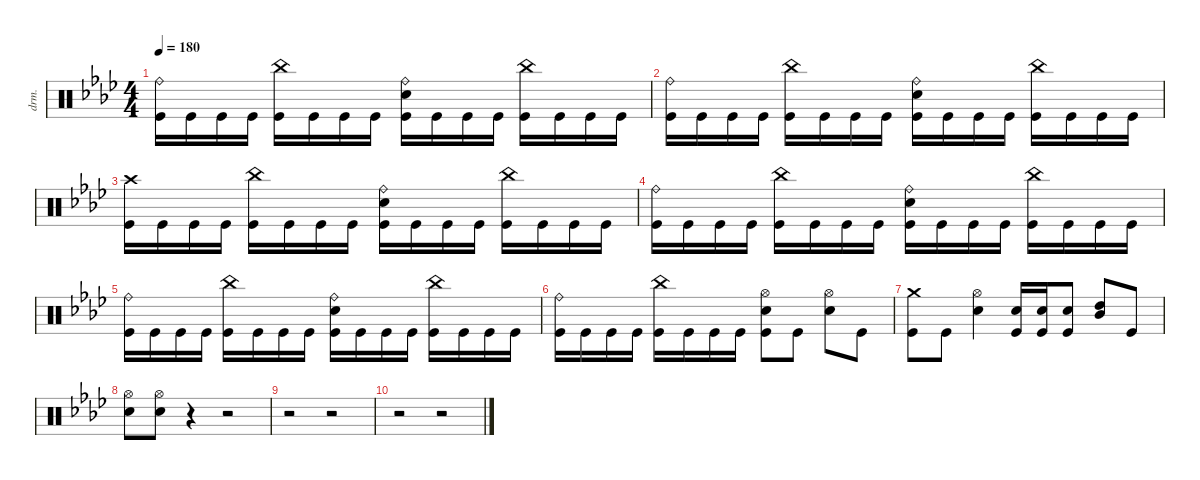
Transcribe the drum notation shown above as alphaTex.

\defaultSystemsLayout 4
\hideDynamics
\bracketExtendMode nobrackets
\otherSystemsTrackNameOrientation horizontal
\track ("Percussion" "drm.") {instrument percussion}
\staff {score}
\articulation defaults
\ts (4 4)
\tempo 180
\clef neutral
\ks fminor
("Ride (bell)"{acc forcenatural} "Kick (hit)"{acc forcenatural}).16{dy f beam Down} "Kick (hit)"{acc forcenatural}.16{beam Down} "Kick (hit)"{acc forcenatural}.16{beam Down} "Kick (hit)"{acc forcenatural}.16{beam Down} ("China (hit)"{acc forcenatural} "Kick (hit)"{acc forcenatural}).16{beam Down} "Kick (hit)"{acc forcenatural}.16{beam Down} "Kick (hit)"{acc forcenatural}.16{beam Down} "Kick (hit)"{acc forcenatural}.16{beam Down} ("Ride (bell)"{acc forcenatural} "Snare (hit) 2"{acc forcenatural} "Kick (hit)"{acc forcenatural}).16{beam Down} "Kick (hit)"{acc forcenatural}.16{beam Down} "Kick (hit)"{acc forcenatural}.16{beam Down} "Kick (hit)"{acc forcenatural}.16{beam Down} ("China (hit)"{acc forcenatural} "Kick (hit)"{acc forcenatural}).16{beam Down} "Kick (hit)"{acc forcenatural}.16{beam Down} "Kick (hit)"{acc forcenatural}.16{beam Down} "Kick (hit)"{acc forcenatural}.16{beam Down} |
("Ride (bell)"{acc forcenatural} "Kick (hit)"{acc forcenatural}).16{beam Down} "Kick (hit)"{acc forcenatural}.16{beam Down} "Kick (hit)"{acc forcenatural}.16{beam Down} "Kick (hit)"{acc forcenatural}.16{beam Down} ("China (hit)"{acc forcenatural} "Kick (hit)"{acc forcenatural}).16{beam Down} "Kick (hit)"{acc forcenatural}.16{beam Down} "Kick (hit)"{acc forcenatural}.16{beam Down} "Kick (hit)"{acc forcenatural}.16{beam Down} ("Ride (bell)"{acc forcenatural} "Snare (hit) 2"{acc forcenatural} "Kick (hit)"{acc forcenatural}).16{beam Down} "Kick (hit)"{acc forcenatural}.16{beam Down} "Kick (hit)"{acc forcenatural}.16{beam Down} "Kick (hit)"{acc forcenatural}.16{beam Down} ("China (hit)"{acc forcenatural} "Kick (hit)"{acc forcenatural}).16{beam Down} "Kick (hit)"{acc forcenatural}.16{beam Down} "Kick (hit)"{acc forcenatural}.16{beam Down} "Kick (hit)"{acc forcenatural}.16{beam Down} |
("Crash high (hit)"{acc forcenatural} "Kick (hit)"{acc forcenatural}).16{beam Down} "Kick (hit)"{acc forcenatural}.16{beam Down} "Kick (hit)"{acc forcenatural}.16{beam Down} "Kick (hit)"{acc forcenatural}.16{beam Down} ("China (hit)"{acc forcenatural} "Kick (hit)"{acc forcenatural}).16{beam Down} "Kick (hit)"{acc forcenatural}.16{beam Down} "Kick (hit)"{acc forcenatural}.16{beam Down} "Kick (hit)"{acc forcenatural}.16{beam Down} ("Ride (bell)"{acc forcenatural} "Snare (hit) 2"{acc forcenatural} "Kick (hit)"{acc forcenatural}).16{beam Down} "Kick (hit)"{acc forcenatural}.16{beam Down} "Kick (hit)"{acc forcenatural}.16{beam Down} "Kick (hit)"{acc forcenatural}.16{beam Down} ("China (hit)"{acc forcenatural} "Kick (hit)"{acc forcenatural}).16{beam Down} "Kick (hit)"{acc forcenatural}.16{beam Down} "Kick (hit)"{acc forcenatural}.16{beam Down} "Kick (hit)"{acc forcenatural}.16{beam Down} |
("Ride (bell)"{acc forcenatural} "Kick (hit)"{acc forcenatural}).16{beam Down} "Kick (hit)"{acc forcenatural}.16{beam Down} "Kick (hit)"{acc forcenatural}.16{beam Down} "Kick (hit)"{acc forcenatural}.16{beam Down} ("China (hit)"{acc forcenatural} "Kick (hit)"{acc forcenatural}).16{beam Down} "Kick (hit)"{acc forcenatural}.16{beam Down} "Kick (hit)"{acc forcenatural}.16{beam Down} "Kick (hit)"{acc forcenatural}.16{beam Down} ("Ride (bell)"{acc forcenatural} "Snare (hit) 2"{acc forcenatural} "Kick (hit)"{acc forcenatural}).16{beam Down} "Kick (hit)"{acc forcenatural}.16{beam Down} "Kick (hit)"{acc forcenatural}.16{beam Down} "Kick (hit)"{acc forcenatural}.16{beam Down} ("China (hit)"{acc forcenatural} "Kick (hit)"{acc forcenatural}).16{beam Down} "Kick (hit)"{acc forcenatural}.16{beam Down} "Kick (hit)"{acc forcenatural}.16{beam Down} "Kick (hit)"{acc forcenatural}.16{beam Down} |
("Ride (bell)"{acc forcenatural} "Kick (hit)"{acc forcenatural}).16{beam Down} "Kick (hit)"{acc forcenatural}.16{beam Down} "Kick (hit)"{acc forcenatural}.16{beam Down} "Kick (hit)"{acc forcenatural}.16{beam Down} ("China (hit)"{acc forcenatural} "Kick (hit)"{acc forcenatural}).16{beam Down} "Kick (hit)"{acc forcenatural}.16{beam Down} "Kick (hit)"{acc forcenatural}.16{beam Down} "Kick (hit)"{acc forcenatural}.16{beam Down} ("Ride (bell)"{acc forcenatural} "Snare (hit) 2"{acc forcenatural} "Kick (hit)"{acc forcenatural}).16{beam Down} "Kick (hit)"{acc forcenatural}.16{beam Down} "Kick (hit)"{acc forcenatural}.16{beam Down} "Kick (hit)"{acc forcenatural}.16{beam Down} ("China (hit)"{acc forcenatural} "Kick (hit)"{acc forcenatural}).16{beam Down} "Kick (hit)"{acc forcenatural}.16{beam Down} "Kick (hit)"{acc forcenatural}.16{beam Down} "Kick (hit)"{acc forcenatural}.16{beam Down} |
("Ride (bell)"{acc forcenatural} "Kick (hit)"{acc forcenatural}).16{beam Down} "Kick (hit)"{acc forcenatural}.16{beam Down} "Kick (hit)"{acc forcenatural}.16{beam Down} "Kick (hit)"{acc forcenatural}.16{beam Down} ("China (hit)"{acc forcenatural} "Kick (hit)"{acc forcenatural}).16{beam Down} "Kick (hit)"{acc forcenatural}.16{beam Down} "Kick (hit)"{acc forcenatural}.16{beam Down} "Kick (hit)"{acc forcenatural}.16{beam Down} ("Hi-Hat (open)"{acc forcenatural} "Snare (hit) 2"{acc forcenatural} "Kick (hit)"{acc forcenatural}).8{beam Down} "Kick (hit)"{acc forcenatural}.8{beam Down} ("Hi-Hat (open)"{acc forcenatural} "Snare (hit) 2"{acc forcenatural}).8{beam Down} "Kick (hit)"{acc forcenatural}.8{beam Down} |
("Crash medium (hit)"{acc forcenatural} "Kick (hit)"{acc forcenatural}).8{beam Down} "Kick (hit)"{acc forcenatural}.8{beam Down} ("Hi-Hat (open)"{acc forcenatural} "Snare (hit) 2"{acc forcenatural}).4{beam Down} ("Snare (hit) 2"{acc forcenatural} "Kick (hit)"{acc forcenatural}).16{beam Up} ("Snare (hit) 2"{acc forcenatural} "Kick (hit)"{acc forcenatural}).16{beam Up} ("Snare (hit) 2"{acc forcenatural} "Kick (hit)"{acc forcenatural}).8{beam Up} ("Mid Tom (hit)"{acc forcenatural} "High Tom (hit)"{acc forcenatural}).8{beam Up} "Kick (hit)"{acc forcenatural}.8{beam Up} |
("Hi-Hat (open)"{acc forcenatural} "Snare (hit) 2"{acc forcenatural}).8{beam Down} ("Hi-Hat (open)"{acc forcenatural} "Snare (hit) 2"{acc forcenatural}).8{beam Down} r.4{beam Down} r.2{beam Down} |
r.2{beam Down} r.2{beam Down} |
r.2{beam Down} r.2{beam Down}
